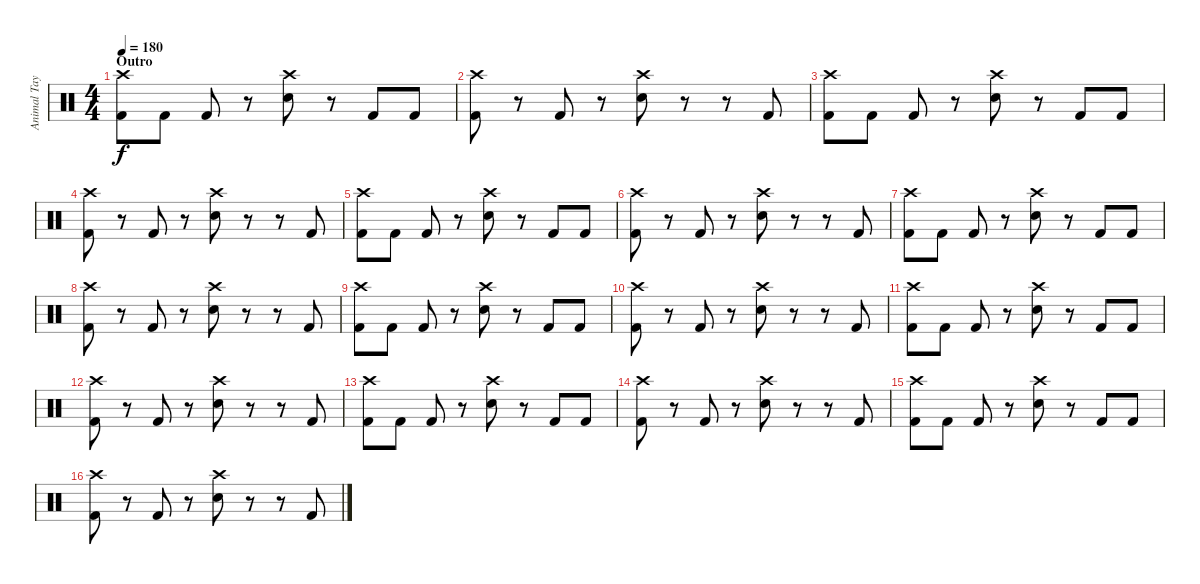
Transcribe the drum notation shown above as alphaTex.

\track ("Animal Taylor" "Animal Tay") {instrument percussion}
\staff {score}
\articulation defaults
\ts (4 4)
\section ("" "Outro")
\tempo 180
\clef neutral
\ks c
("Crash high (hit)" "Kick (hit) 2").8{dy f} "Kick (hit) 2".8 "Kick (hit) 2".8 r.8 ("Crash high (hit)" "Snare (hit) 2").8 r.8 "Kick (hit) 2".8 "Kick (hit) 2".8 |
("Crash high (hit)" "Kick (hit) 2").8 r.8 "Kick (hit) 2".8 r.8 ("Crash high (hit)" "Snare (hit) 2").8 r.8 r.8 "Kick (hit) 2".8 |
("Crash high (hit)" "Kick (hit) 2").8 "Kick (hit) 2".8 "Kick (hit) 2".8 r.8 ("Crash high (hit)" "Snare (hit) 2").8 r.8 "Kick (hit) 2".8 "Kick (hit) 2".8 |
("Crash high (hit)" "Kick (hit) 2").8 r.8 "Kick (hit) 2".8 r.8 ("Crash high (hit)" "Snare (hit) 2").8 r.8 r.8 "Kick (hit) 2".8 |
("Crash high (hit)" "Kick (hit) 2").8 "Kick (hit) 2".8 "Kick (hit) 2".8 r.8 ("Crash high (hit)" "Snare (hit) 2").8 r.8 "Kick (hit) 2".8 "Kick (hit) 2".8 |
("Crash high (hit)" "Kick (hit) 2").8 r.8 "Kick (hit) 2".8 r.8 ("Crash high (hit)" "Snare (hit) 2").8 r.8 r.8 "Kick (hit) 2".8 |
("Crash high (hit)" "Kick (hit) 2").8 "Kick (hit) 2".8 "Kick (hit) 2".8 r.8 ("Crash high (hit)" "Snare (hit) 2").8 r.8 "Kick (hit) 2".8 "Kick (hit) 2".8 |
("Crash high (hit)" "Kick (hit) 2").8 r.8 "Kick (hit) 2".8 r.8 ("Crash high (hit)" "Snare (hit) 2").8 r.8 r.8 "Kick (hit) 2".8 |
("Crash high (hit)" "Kick (hit) 2").8 "Kick (hit) 2".8 "Kick (hit) 2".8 r.8 ("Crash high (hit)" "Snare (hit) 2").8 r.8 "Kick (hit) 2".8 "Kick (hit) 2".8 |
("Crash high (hit)" "Kick (hit) 2").8 r.8 "Kick (hit) 2".8 r.8 ("Crash high (hit)" "Snare (hit) 2").8 r.8 r.8 "Kick (hit) 2".8 |
("Crash high (hit)" "Kick (hit) 2").8 "Kick (hit) 2".8 "Kick (hit) 2".8 r.8 ("Crash high (hit)" "Snare (hit) 2").8 r.8 "Kick (hit) 2".8 "Kick (hit) 2".8 |
("Crash high (hit)" "Kick (hit) 2").8 r.8 "Kick (hit) 2".8 r.8 ("Crash high (hit)" "Snare (hit) 2").8 r.8 r.8 "Kick (hit) 2".8 |
("Crash high (hit)" "Kick (hit) 2").8 "Kick (hit) 2".8 "Kick (hit) 2".8 r.8 ("Crash high (hit)" "Snare (hit) 2").8 r.8 "Kick (hit) 2".8 "Kick (hit) 2".8 |
("Crash high (hit)" "Kick (hit) 2").8 r.8 "Kick (hit) 2".8 r.8 ("Crash high (hit)" "Snare (hit) 2").8 r.8 r.8 "Kick (hit) 2".8 |
("Crash high (hit)" "Kick (hit) 2").8 "Kick (hit) 2".8 "Kick (hit) 2".8 r.8 ("Crash high (hit)" "Snare (hit) 2").8 r.8 "Kick (hit) 2".8 "Kick (hit) 2".8 |
("Crash high (hit)" "Kick (hit) 2").8 r.8 "Kick (hit) 2".8 r.8 ("Crash high (hit)" "Snare (hit) 2").8 r.8 r.8 "Kick (hit) 2".8
